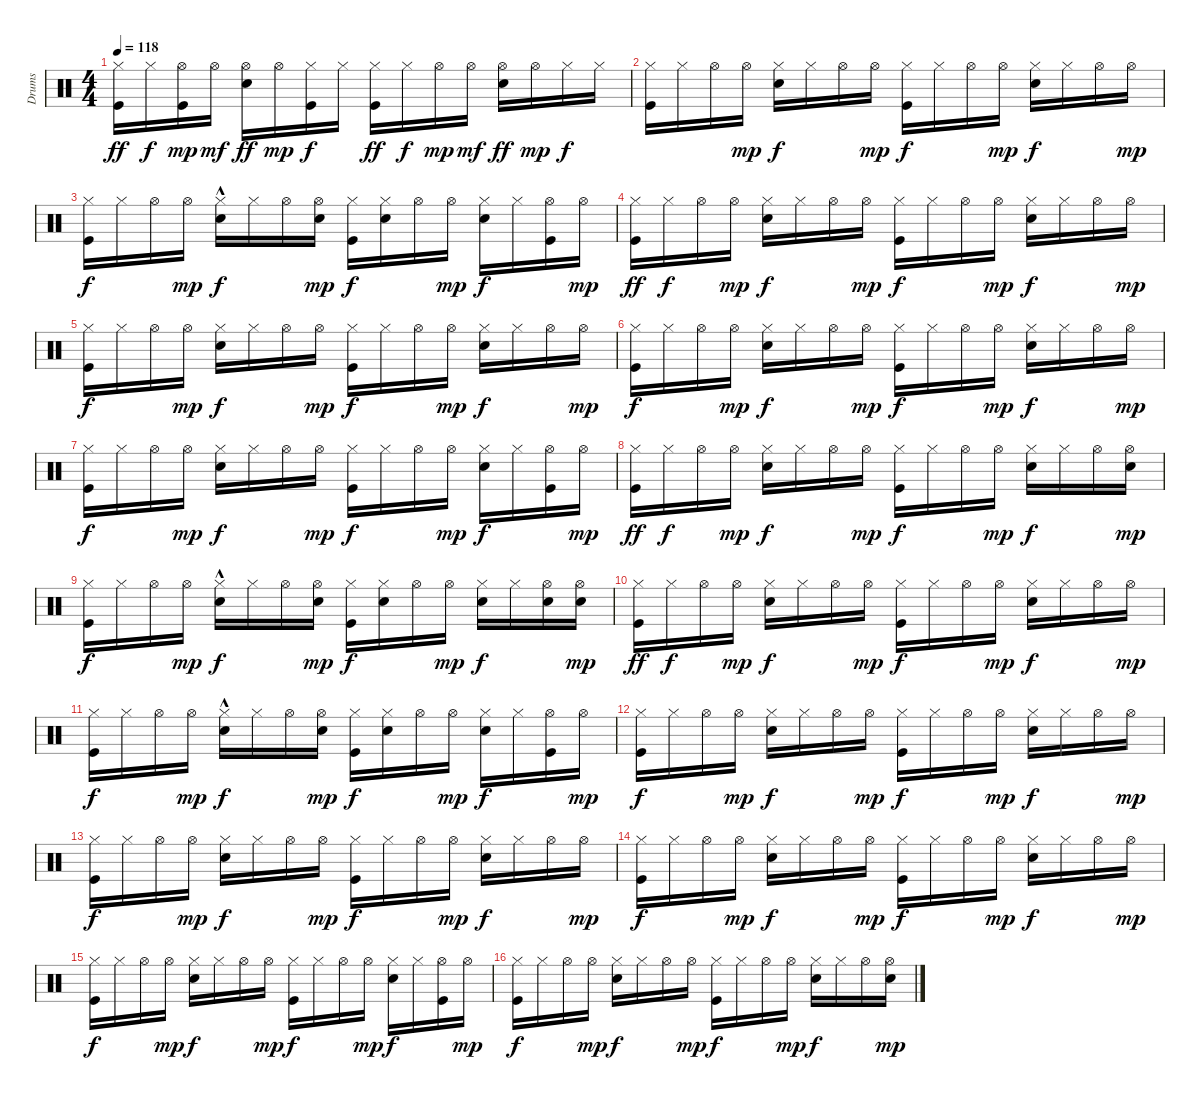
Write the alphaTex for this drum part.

\track ("Drums" "Drums") {instrument percussion}
\staff {score}
\articulation defaults
\ts (4 4)
\tempo 118
\clef neutral
\ks c
("Kick (hit)" "Hi-Hat (closed)").16{dy ff} "Hi-Hat (closed)".16{dy f} ("Kick (hit)" "Hi-Hat (open)").16{dy mp} "Hi-Hat (open)".16{dy mf} ("Electric Snare (hit)" "Hi-Hat (open)").16{dy ff} "Hi-Hat (open)".16{dy mp} ("Kick (hit)" "Hi-Hat (closed)").16{dy f} "Hi-Hat (closed)".16 ("Kick (hit)" "Hi-Hat (closed)").16{dy ff} "Hi-Hat (closed)".16{dy f} "Hi-Hat (open)".16{dy mp} "Hi-Hat (open)".16{dy mf} ("Electric Snare (hit)" "Hi-Hat (open)").16{dy ff} "Hi-Hat (open)".16{dy mp} "Hi-Hat (closed)".16{dy f} "Hi-Hat (closed)".16 |
("Hi-Hat (closed)" "Kick (hit)").16 "Hi-Hat (closed)".16 "Hi-Hat (open)".16 "Hi-Hat (open)".16{dy mp} ("Hi-Hat (closed)" "Electric Snare (hit)").16{dy f} "Hi-Hat (closed)".16 "Hi-Hat (open)".16 "Hi-Hat (open)".16{dy mp} ("Kick (hit)" "Hi-Hat (closed)").16{dy f} "Hi-Hat (closed)".16 "Hi-Hat (open)".16 "Hi-Hat (open)".16{dy mp} ("Hi-Hat (closed)" "Electric Snare (hit)").16{dy f} "Hi-Hat (closed)".16 "Hi-Hat (open)".16 "Hi-Hat (open)".16{dy mp} |
("Hi-Hat (closed)" "Kick (hit)").16{dy f} "Hi-Hat (closed)".16 "Hi-Hat (open)".16 "Hi-Hat (open)".16{dy mp} ("Hi-Hat (closed)" "Electric Snare (hit)"{hac}).16{dy f} "Hi-Hat (closed)".16 "Hi-Hat (open)".16 ("Electric Snare (hit)" "Hi-Hat (open)").16{dy mp} ("Kick (hit)" "Hi-Hat (closed)").16{dy f} ("Electric Snare (hit)" "Hi-Hat (closed)").16 "Hi-Hat (open)".16 "Hi-Hat (open)".16{dy mp} ("Hi-Hat (closed)" "Electric Snare (hit)").16{dy f} "Hi-Hat (closed)".16 ("Kick (hit)" "Hi-Hat (open)").16 "Hi-Hat (open)".16{dy mp} |
("Hi-Hat (closed)" "Kick (hit)").16{dy ff} "Hi-Hat (closed)".16{dy f} "Hi-Hat (open)".16 "Hi-Hat (open)".16{dy mp} ("Hi-Hat (closed)" "Electric Snare (hit)").16{dy f} "Hi-Hat (closed)".16 "Hi-Hat (open)".16 "Hi-Hat (open)".16{dy mp} ("Kick (hit)" "Hi-Hat (closed)").16{dy f} "Hi-Hat (closed)".16 "Hi-Hat (open)".16 "Hi-Hat (open)".16{dy mp} ("Hi-Hat (closed)" "Electric Snare (hit)").16{dy f} "Hi-Hat (closed)".16 "Hi-Hat (open)".16 "Hi-Hat (open)".16{dy mp} |
("Hi-Hat (closed)" "Kick (hit)").16{dy f} "Hi-Hat (closed)".16 "Hi-Hat (open)".16 "Hi-Hat (open)".16{dy mp} ("Hi-Hat (closed)" "Electric Snare (hit)").16{dy f} "Hi-Hat (closed)".16 "Hi-Hat (open)".16 "Hi-Hat (open)".16{dy mp} ("Kick (hit)" "Hi-Hat (closed)").16{dy f} "Hi-Hat (closed)".16 "Hi-Hat (open)".16 "Hi-Hat (open)".16{dy mp} ("Hi-Hat (closed)" "Electric Snare (hit)").16{dy f} "Hi-Hat (closed)".16 "Hi-Hat (open)".16 "Hi-Hat (open)".16{dy mp} |
("Hi-Hat (closed)" "Kick (hit)").16{dy f} "Hi-Hat (closed)".16 "Hi-Hat (open)".16 "Hi-Hat (open)".16{dy mp} ("Hi-Hat (closed)" "Electric Snare (hit)").16{dy f} "Hi-Hat (closed)".16 "Hi-Hat (open)".16 "Hi-Hat (open)".16{dy mp} ("Kick (hit)" "Hi-Hat (closed)").16{dy f} "Hi-Hat (closed)".16 "Hi-Hat (open)".16 "Hi-Hat (open)".16{dy mp} ("Hi-Hat (closed)" "Electric Snare (hit)").16{dy f} "Hi-Hat (closed)".16 "Hi-Hat (open)".16 "Hi-Hat (open)".16{dy mp} |
("Hi-Hat (closed)" "Kick (hit)").16{dy f} "Hi-Hat (closed)".16 "Hi-Hat (open)".16 "Hi-Hat (open)".16{dy mp} ("Electric Snare (hit)" "Hi-Hat (closed)").16{dy f} "Hi-Hat (closed)".16 "Hi-Hat (open)".16 "Hi-Hat (open)".16{dy mp} ("Kick (hit)" "Hi-Hat (closed)").16{dy f} "Hi-Hat (closed)".16 "Hi-Hat (open)".16 "Hi-Hat (open)".16{dy mp} ("Hi-Hat (closed)" "Electric Snare (hit)").16{dy f} "Hi-Hat (closed)".16 ("Kick (hit)" "Hi-Hat (open)").16 "Hi-Hat (open)".16{dy mp} |
("Hi-Hat (closed)" "Kick (hit)").16{dy ff} "Hi-Hat (closed)".16{dy f} "Hi-Hat (open)".16 "Hi-Hat (open)".16{dy mp} ("Hi-Hat (closed)" "Electric Snare (hit)").16{dy f} "Hi-Hat (closed)".16 "Hi-Hat (open)".16 "Hi-Hat (open)".16{dy mp} ("Kick (hit)" "Hi-Hat (closed)").16{dy f} "Hi-Hat (closed)".16 "Hi-Hat (open)".16 "Hi-Hat (open)".16{dy mp} ("Hi-Hat (closed)" "Electric Snare (hit)").16{dy f} "Hi-Hat (closed)".16 "Hi-Hat (open)".16 ("Electric Snare (hit)" "Hi-Hat (open)").16{dy mp} |
("Hi-Hat (closed)" "Kick (hit)").16{dy f} "Hi-Hat (closed)".16 "Hi-Hat (open)".16 "Hi-Hat (open)".16{dy mp} ("Hi-Hat (closed)" "Electric Snare (hit)"{hac}).16{dy f} "Hi-Hat (closed)".16 "Hi-Hat (open)".16 ("Electric Snare (hit)" "Hi-Hat (open)").16{dy mp} ("Kick (hit)" "Hi-Hat (closed)").16{dy f} ("Electric Snare (hit)" "Hi-Hat (closed)").16 "Hi-Hat (open)".16 "Hi-Hat (open)".16{dy mp} ("Hi-Hat (closed)" "Electric Snare (hit)").16{dy f} "Hi-Hat (closed)".16 ("Electric Snare (hit)" "Hi-Hat (open)").16 ("Electric Snare (hit)" "Hi-Hat (open)").16{dy mp} |
("Hi-Hat (closed)" "Kick (hit)").16{dy ff} "Hi-Hat (closed)".16{dy f} "Hi-Hat (open)".16 "Hi-Hat (open)".16{dy mp} ("Hi-Hat (closed)" "Electric Snare (hit)").16{dy f} "Hi-Hat (closed)".16 "Hi-Hat (open)".16 "Hi-Hat (open)".16{dy mp} ("Kick (hit)" "Hi-Hat (closed)").16{dy f} "Hi-Hat (closed)".16 "Hi-Hat (open)".16 "Hi-Hat (open)".16{dy mp} ("Hi-Hat (closed)" "Electric Snare (hit)").16{dy f} "Hi-Hat (closed)".16 "Hi-Hat (open)".16 "Hi-Hat (open)".16{dy mp} |
("Hi-Hat (closed)" "Kick (hit)").16{dy f} "Hi-Hat (closed)".16 "Hi-Hat (open)".16 "Hi-Hat (open)".16{dy mp} ("Hi-Hat (closed)" "Electric Snare (hit)"{hac}).16{dy f} "Hi-Hat (closed)".16 "Hi-Hat (open)".16 ("Electric Snare (hit)" "Hi-Hat (open)").16{dy mp} ("Kick (hit)" "Hi-Hat (closed)").16{dy f} ("Electric Snare (hit)" "Hi-Hat (closed)").16 "Hi-Hat (open)".16 "Hi-Hat (open)".16{dy mp} ("Hi-Hat (closed)" "Electric Snare (hit)").16{dy f} "Hi-Hat (closed)".16 ("Kick (hit)" "Hi-Hat (open)").16 "Hi-Hat (open)".16{dy mp} |
("Hi-Hat (closed)" "Kick (hit)").16{dy f} "Hi-Hat (closed)".16 "Hi-Hat (open)".16 "Hi-Hat (open)".16{dy mp} ("Hi-Hat (closed)" "Electric Snare (hit)").16{dy f} "Hi-Hat (closed)".16 "Hi-Hat (open)".16 "Hi-Hat (open)".16{dy mp} ("Kick (hit)" "Hi-Hat (closed)").16{dy f} "Hi-Hat (closed)".16 "Hi-Hat (open)".16 "Hi-Hat (open)".16{dy mp} ("Hi-Hat (closed)" "Electric Snare (hit)").16{dy f} "Hi-Hat (closed)".16 "Hi-Hat (open)".16 "Hi-Hat (open)".16{dy mp} |
("Hi-Hat (closed)" "Kick (hit)").16{dy f} "Hi-Hat (closed)".16 "Hi-Hat (open)".16 "Hi-Hat (open)".16{dy mp} ("Hi-Hat (closed)" "Electric Snare (hit)").16{dy f} "Hi-Hat (closed)".16 "Hi-Hat (open)".16 "Hi-Hat (open)".16{dy mp} ("Kick (hit)" "Hi-Hat (closed)").16{dy f} "Hi-Hat (closed)".16 "Hi-Hat (open)".16 "Hi-Hat (open)".16{dy mp} ("Hi-Hat (closed)" "Electric Snare (hit)").16{dy f} "Hi-Hat (closed)".16 "Hi-Hat (open)".16 "Hi-Hat (open)".16{dy mp} |
("Hi-Hat (closed)" "Kick (hit)").16{dy f} "Hi-Hat (closed)".16 "Hi-Hat (open)".16 "Hi-Hat (open)".16{dy mp} ("Hi-Hat (closed)" "Electric Snare (hit)").16{dy f} "Hi-Hat (closed)".16 "Hi-Hat (open)".16 "Hi-Hat (open)".16{dy mp} ("Kick (hit)" "Hi-Hat (closed)").16{dy f} "Hi-Hat (closed)".16 "Hi-Hat (open)".16 "Hi-Hat (open)".16{dy mp} ("Hi-Hat (closed)" "Electric Snare (hit)").16{dy f} "Hi-Hat (closed)".16 "Hi-Hat (open)".16 "Hi-Hat (open)".16{dy mp} |
("Hi-Hat (closed)" "Kick (hit)").16{dy f} "Hi-Hat (closed)".16 "Hi-Hat (open)".16 "Hi-Hat (open)".16{dy mp} ("Electric Snare (hit)" "Hi-Hat (closed)").16{dy f} "Hi-Hat (closed)".16 "Hi-Hat (open)".16 "Hi-Hat (open)".16{dy mp} ("Kick (hit)" "Hi-Hat (closed)").16{dy f} "Hi-Hat (closed)".16 "Hi-Hat (open)".16 "Hi-Hat (open)".16{dy mp} ("Hi-Hat (closed)" "Electric Snare (hit)").16{dy f} "Hi-Hat (closed)".16 ("Kick (hit)" "Hi-Hat (open)").16 "Hi-Hat (open)".16{dy mp} |
("Hi-Hat (closed)" "Kick (hit)").16{dy f} "Hi-Hat (closed)".16 "Hi-Hat (open)".16 "Hi-Hat (open)".16{dy mp} ("Hi-Hat (closed)" "Electric Snare (hit)").16{dy f} "Hi-Hat (closed)".16 "Hi-Hat (open)".16 "Hi-Hat (open)".16{dy mp} ("Kick (hit)" "Hi-Hat (closed)").16{dy f} "Hi-Hat (closed)".16 "Hi-Hat (open)".16 "Hi-Hat (open)".16{dy mp} ("Hi-Hat (closed)" "Electric Snare (hit)").16{dy f} "Hi-Hat (closed)".16 "Hi-Hat (open)".16 ("Electric Snare (hit)" "Hi-Hat (open)").16{dy mp}
